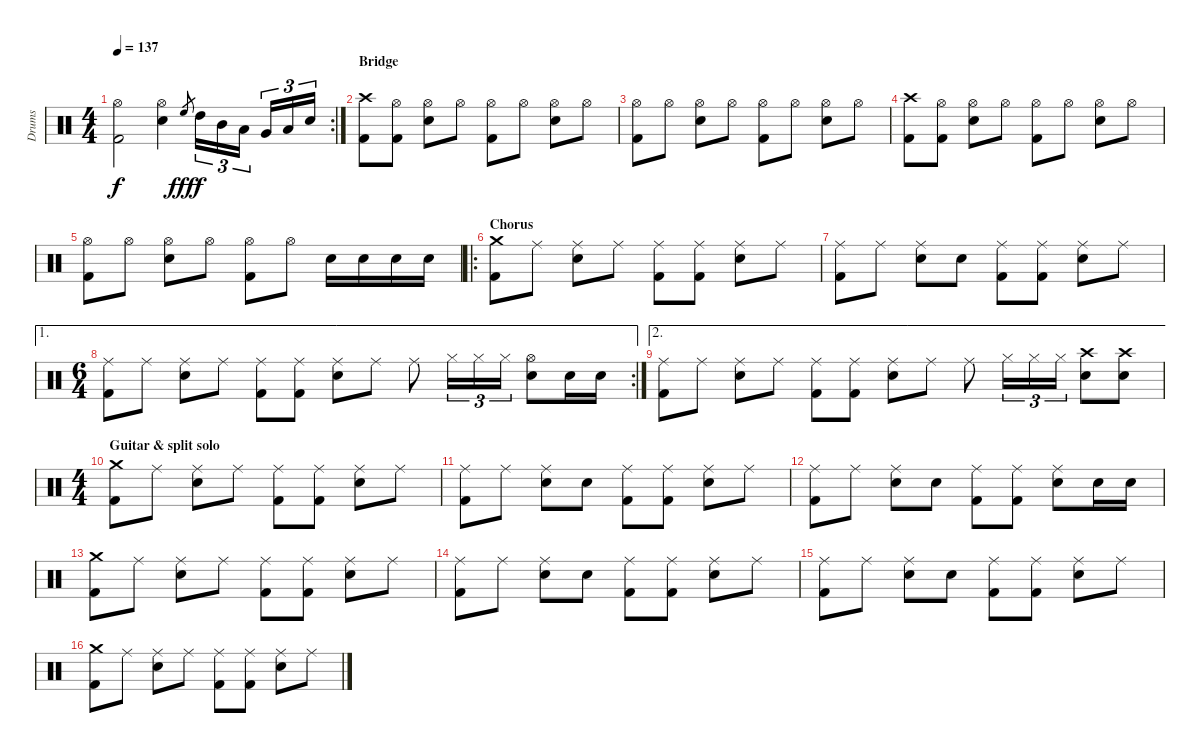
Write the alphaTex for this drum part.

\track ("Drums" "Drums") {instrument percussion}
\staff {score}
\articulation defaults
\rc 2
\ts (4 4)
\tempo 137
\clef neutral
\ks c
("Hi-Hat (open)" "Kick (hit) 2").2{dy f} ("Hi-Hat (open)" "Electric Snare (hit)").4 "High Floor Tom (hit)".8{gr dy fff} "High Tom (hit)".16{tu (3 2) dy f} "Mid Tom (hit)".16{tu (3 2)} "Low Tom (hit)".16{tu (3 2)} "Very Low Tom (hit)".16{tu (3 2)} "Low Floor Tom (hit)".16{tu (3 2)} "Electric Snare (hit)".16{tu (3 2)} |
\section ("" "Bridge")
("Crash high (hit)" "Kick (hit) 2").8 ("Hi-Hat (open)" "Kick (hit) 2").8 ("Hi-Hat (open)" "Electric Snare (hit)").8 "Hi-Hat (open)".8 ("Hi-Hat (open)" "Kick (hit) 2").8 "Hi-Hat (open)".8 ("Hi-Hat (open)" "Electric Snare (hit)").8 "Hi-Hat (open)".8 |
("Hi-Hat (open)" "Kick (hit) 2").8 "Hi-Hat (open)".8 ("Hi-Hat (open)" "Electric Snare (hit)").8 "Hi-Hat (open)".8 ("Hi-Hat (open)" "Kick (hit) 2").8 "Hi-Hat (open)".8 ("Hi-Hat (open)" "Electric Snare (hit)").8 "Hi-Hat (open)".8 |
("Crash high (hit)" "Kick (hit) 2").8 ("Hi-Hat (open)" "Kick (hit) 2").8 ("Hi-Hat (open)" "Electric Snare (hit)").8 "Hi-Hat (open)".8 ("Hi-Hat (open)" "Kick (hit) 2").8 "Hi-Hat (open)".8 ("Hi-Hat (open)" "Electric Snare (hit)").8 "Hi-Hat (open)".8 |
("Hi-Hat (open)" "Kick (hit) 2").8 "Hi-Hat (open)".8 ("Hi-Hat (open)" "Electric Snare (hit)").8 "Hi-Hat (open)".8 ("Hi-Hat (open)" "Kick (hit) 2").8 "Hi-Hat (open)".8 "Electric Snare (hit)".16 "Electric Snare (hit)".16 "Electric Snare (hit)".16 "Electric Snare (hit)".16 |
\ro
\section ("" "Chorus")
("Crash medium (hit)" "Kick (hit) 2").8 "Ride (middle)".8 ("Ride (middle)" "Electric Snare (hit)").8 "Ride (middle)".8 ("Ride (middle)" "Kick (hit) 2").8 ("Ride (middle)" "Kick (hit) 2").8 ("Ride (middle)" "Electric Snare (hit)").8 "Ride (middle)".8 |
("Ride (middle)" "Kick (hit) 2").8 "Ride (middle)".8 ("Ride (middle)" "Electric Snare (hit)").8 "Snare (hit)".8 ("Ride (middle)" "Kick (hit) 2").8 ("Ride (middle)" "Kick (hit) 2").8 ("Ride (middle)" "Electric Snare (hit)").8 "Ride (middle)".8 |
\ae 1
\rc 2
\ts (6 4)
("Ride (middle)" "Kick (hit) 2").8 "Ride (middle)".8 ("Ride (middle)" "Electric Snare (hit)").8 "Ride (middle)".8 ("Ride (middle)" "Kick (hit) 2").8 ("Ride (middle)" "Kick (hit) 2").8 ("Ride (middle)" "Electric Snare (hit)").8 "Ride (middle)".8 "Ride (middle)".8 "Hi-Hat (closed)".16{tu (3 2)} "Hi-Hat (closed)".16{tu (3 2)} "Hi-Hat (closed)".16{tu (3 2)} ("Hi-Hat (open)" "Electric Snare (hit)").8 "Electric Snare (hit)".16 "Electric Snare (hit)".16 |
\ae 2
("Ride (middle)" "Kick (hit) 2").8 "Ride (middle)".8 ("Ride (middle)" "Electric Snare (hit)").8 "Ride (middle)".8 ("Ride (middle)" "Kick (hit) 2").8 ("Ride (middle)" "Kick (hit) 2").8 ("Ride (middle)" "Electric Snare (hit)").8 "Ride (middle)".8 "Ride (middle)".8 "Hi-Hat (closed)".16{tu (3 2)} "Hi-Hat (closed)".16{tu (3 2)} "Hi-Hat (closed)".16{tu (3 2)} ("Crash high (hit)" "Electric Snare (hit)").8 ("Crash high (hit)" "Electric Snare (hit)").8 |
\ts (4 4)
\section ("" "Guitar & split solo")
("Crash medium (hit)" "Kick (hit) 2").8 "Ride (middle)".8 ("Ride (middle)" "Electric Snare (hit)").8 "Ride (middle)".8 ("Ride (middle)" "Kick (hit) 2").8 ("Ride (middle)" "Kick (hit) 2").8 ("Ride (middle)" "Electric Snare (hit)").8 "Ride (middle)".8 |
("Ride (middle)" "Kick (hit) 2").8 "Ride (middle)".8 ("Ride (middle)" "Electric Snare (hit)").8 "Snare (hit)".8 ("Ride (middle)" "Kick (hit) 2").8 ("Ride (middle)" "Kick (hit) 2").8 ("Ride (middle)" "Electric Snare (hit)").8 "Ride (middle)".8 |
("Ride (middle)" "Kick (hit) 2").8 "Ride (middle)".8 ("Ride (middle)" "Electric Snare (hit)").8 "Snare (hit)".8 ("Ride (middle)" "Kick (hit) 2").8 ("Ride (middle)" "Kick (hit) 2").8 ("Ride (middle)" "Electric Snare (hit)").8 "Electric Snare (hit)".16 "Electric Snare (hit)".16 |
("Crash medium (hit)" "Kick (hit) 2").8 "Ride (middle)".8 ("Ride (middle)" "Electric Snare (hit)").8 "Ride (middle)".8 ("Ride (middle)" "Kick (hit) 2").8 ("Ride (middle)" "Kick (hit) 2").8 ("Ride (middle)" "Electric Snare (hit)").8 "Ride (middle)".8 |
("Ride (middle)" "Kick (hit) 2").8 "Ride (middle)".8 ("Ride (middle)" "Electric Snare (hit)").8 "Snare (hit)".8 ("Ride (middle)" "Kick (hit) 2").8 ("Ride (middle)" "Kick (hit) 2").8 ("Ride (middle)" "Electric Snare (hit)").8 "Ride (middle)".8 |
("Ride (middle)" "Kick (hit) 2").8 "Ride (middle)".8 ("Ride (middle)" "Electric Snare (hit)").8 "Snare (hit)".8 ("Ride (middle)" "Kick (hit) 2").8 ("Ride (middle)" "Kick (hit) 2").8 ("Ride (middle)" "Electric Snare (hit)").8 "Ride (middle)".8 |
("Crash medium (hit)" "Kick (hit) 2").8 "Ride (middle)".8 ("Ride (middle)" "Electric Snare (hit)").8 "Ride (middle)".8 ("Ride (middle)" "Kick (hit) 2").8 ("Ride (middle)" "Kick (hit) 2").8 ("Ride (middle)" "Electric Snare (hit)").8 "Ride (middle)".8
